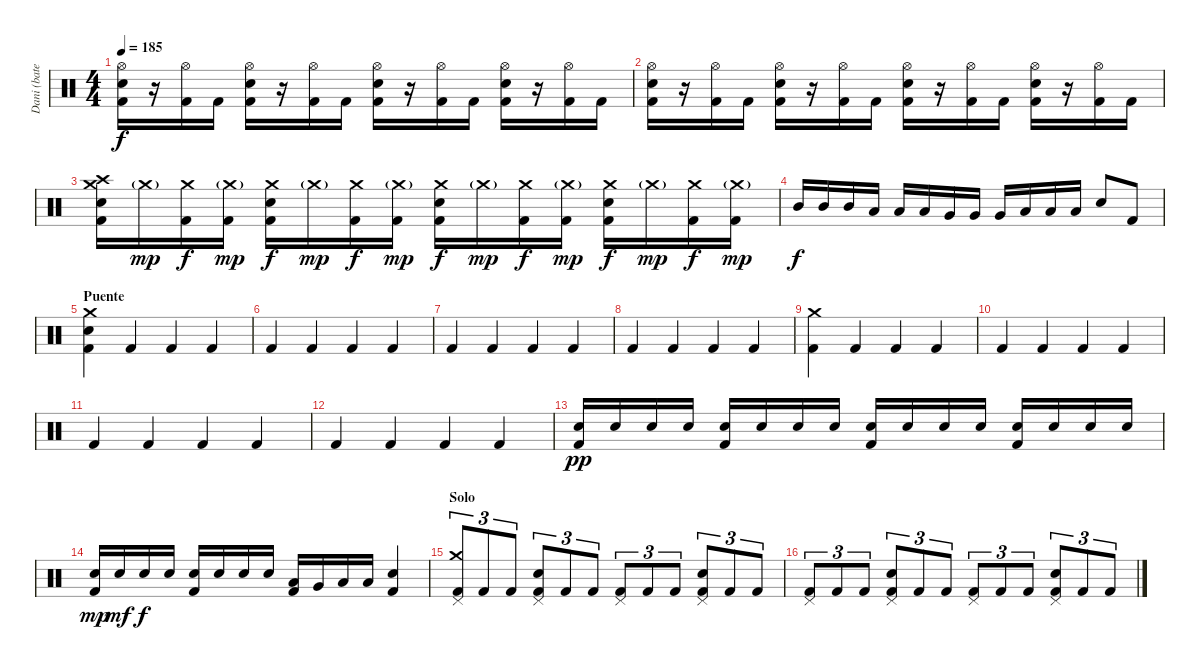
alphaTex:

\track ("Dani (batería)" "Dani (bate") {instrument percussion}
\staff {score}
\articulation defaults
\ts (4 4)
\tempo 185
\clef neutral
\ks c
("Hi-Hat (open)" "Snare (hit) 2" "Kick (hit) 2").16{dy f} r.16 ("Hi-Hat (open)" "Kick (hit) 2").16 "Kick (hit) 2".16 ("Hi-Hat (open)" "Snare (hit) 2" "Kick (hit) 2").16 r.16 ("Hi-Hat (open)" "Kick (hit) 2").16 "Kick (hit) 2".16 ("Hi-Hat (open)" "Snare (hit) 2" "Kick (hit) 2").16 r.16 ("Hi-Hat (open)" "Kick (hit) 2").16 "Kick (hit) 2".16 ("Hi-Hat (open)" "Snare (hit) 2" "Kick (hit) 2").16 r.16 ("Hi-Hat (open)" "Kick (hit) 2").16 "Kick (hit) 2".16 |
("Hi-Hat (open)" "Snare (hit) 2" "Kick (hit) 2").16 r.16 ("Hi-Hat (open)" "Kick (hit) 2").16 "Kick (hit) 2".16 ("Hi-Hat (open)" "Snare (hit) 2" "Kick (hit) 2").16 r.16 ("Hi-Hat (open)" "Kick (hit) 2").16 "Kick (hit) 2".16 ("Hi-Hat (open)" "Snare (hit) 2" "Kick (hit) 2").16 r.16 ("Hi-Hat (open)" "Kick (hit) 2").16 "Kick (hit) 2".16 ("Hi-Hat (open)" "Snare (hit) 2" "Kick (hit) 2").16 r.16 ("Hi-Hat (open)" "Kick (hit) 2").16 "Kick (hit) 2".16 |
("Crash high (hit)" "Crash medium (hit)" "Snare (hit) 2" "Kick (hit) 2").16 "Crash medium (hit)"{g}.16{dy mp} ("Crash medium (hit)" "Kick (hit) 2").16{dy f} ("Crash medium (hit)"{g} "Kick (hit) 2").16{dy mp} ("Crash medium (hit)" "Snare (hit) 2" "Kick (hit) 2").16{dy f} "Crash medium (hit)"{g}.16{dy mp} ("Crash medium (hit)" "Kick (hit) 2").16{dy f} ("Crash medium (hit)"{g} "Kick (hit) 2").16{dy mp} ("Crash medium (hit)" "Snare (hit) 2" "Kick (hit) 2").16{dy f} "Crash medium (hit)"{g}.16{dy mp} ("Crash medium (hit)" "Kick (hit) 2").16{dy f} ("Crash medium (hit)"{g} "Kick (hit) 2").16{dy mp} ("Crash medium (hit)" "Snare (hit) 2" "Kick (hit) 2").16{dy f} "Crash medium (hit)"{g}.16{dy mp} ("Crash medium (hit)" "Kick (hit) 2").16{dy f} ("Crash medium (hit)"{g} "Kick (hit) 2").16{dy mp} |
"Mid Tom (hit)".16{dy f} "Mid Tom (hit)".16 "Mid Tom (hit)".16 "Low Tom (hit)".16 "Low Tom (hit)".16 "Low Tom (hit)".16 "Very Low Tom (hit)".16 "Very Low Tom (hit)".16 "Very Low Tom (hit)".16 "Low Floor Tom (hit)".16 "Low Floor Tom (hit)".16 "Low Floor Tom (hit)".16 "Snare (hit) 2".8 "Kick (hit) 2".8 |
\section ("" "Puente")
("Crash medium (hit)" "Snare (hit) 2" "Kick (hit) 2").4 "Kick (hit) 2".4 "Kick (hit) 2".4 "Kick (hit) 2".4 |
"Kick (hit) 2".4 "Kick (hit) 2".4 "Kick (hit) 2".4 "Kick (hit) 2".4 |
"Kick (hit) 2".4 "Kick (hit) 2".4 "Kick (hit) 2".4 "Kick (hit) 2".4 |
"Kick (hit) 2".4 "Kick (hit) 2".4 "Kick (hit) 2".4 "Kick (hit) 2".4 |
("Crash medium (hit)" "Kick (hit) 2").4 "Kick (hit) 2".4 "Kick (hit) 2".4 "Kick (hit) 2".4 |
"Kick (hit) 2".4 "Kick (hit) 2".4 "Kick (hit) 2".4 "Kick (hit) 2".4 |
"Kick (hit) 2".4 "Kick (hit) 2".4 "Kick (hit) 2".4 "Kick (hit) 2".4 |
"Kick (hit) 2".4 "Kick (hit) 2".4 "Kick (hit) 2".4 "Kick (hit) 2".4 |
("Snare (hit) 2" "Kick (hit) 2").16{dy pp} "Snare (hit) 2".16 "Snare (hit) 2".16 "Snare (hit) 2".16 ("Snare (hit) 2" "Kick (hit) 2").16 "Snare (hit) 2".16 "Snare (hit) 2".16 "Snare (hit) 2".16 ("Snare (hit) 2" "Kick (hit) 2").16 "Snare (hit) 2".16 "Snare (hit) 2".16 "Snare (hit) 2".16 ("Snare (hit) 2" "Kick (hit) 2").16 "Snare (hit) 2".16 "Snare (hit) 2".16 "Snare (hit) 2".16 |
("Snare (hit) 2" "Kick (hit) 2").16{dy mp} "Snare (hit) 2".16{dy mf} "Snare (hit) 2".16{dy f} "Snare (hit) 2".16 ("Snare (hit) 2" "Kick (hit) 2").16 "Snare (hit) 2".16 "Snare (hit) 2".16 "Snare (hit) 2".16 ("Low Tom (hit)" "Kick (hit) 2").16 "Very Low Tom (hit)".16 "Low Floor Tom (hit)".16 "Low Floor Tom (hit)".16 ("Snare (hit) 2" "Kick (hit) 2").4 |
\section ("" "Solo")
("Crash medium (hit)" "Pedal Hi-Hat (hit)" "Kick (hit) 2").8{tu (3 2)} "Kick (hit) 2".8{tu (3 2)} "Kick (hit) 2".8{tu (3 2)} ("Pedal Hi-Hat (hit)" "Snare (hit) 2" "Kick (hit) 2").8{tu (3 2)} "Kick (hit) 2".8{tu (3 2)} "Kick (hit) 2".8{tu (3 2)} ("Pedal Hi-Hat (hit)" "Kick (hit) 2").8{tu (3 2)} "Kick (hit) 2".8{tu (3 2)} "Kick (hit) 2".8{tu (3 2)} ("Pedal Hi-Hat (hit)" "Snare (hit) 2" "Kick (hit) 2").8{tu (3 2)} "Kick (hit) 2".8{tu (3 2)} "Kick (hit) 2".8{tu (3 2)} |
("Pedal Hi-Hat (hit)" "Kick (hit) 2").8{tu (3 2)} "Kick (hit) 2".8{tu (3 2)} "Kick (hit) 2".8{tu (3 2)} ("Pedal Hi-Hat (hit)" "Snare (hit) 2" "Kick (hit) 2").8{tu (3 2)} "Kick (hit) 2".8{tu (3 2)} "Kick (hit) 2".8{tu (3 2)} ("Pedal Hi-Hat (hit)" "Kick (hit) 2").8{tu (3 2)} "Kick (hit) 2".8{tu (3 2)} "Kick (hit) 2".8{tu (3 2)} ("Pedal Hi-Hat (hit)" "Snare (hit) 2" "Kick (hit) 2").8{tu (3 2)} "Kick (hit) 2".8{tu (3 2)} "Kick (hit) 2".8{tu (3 2)}
